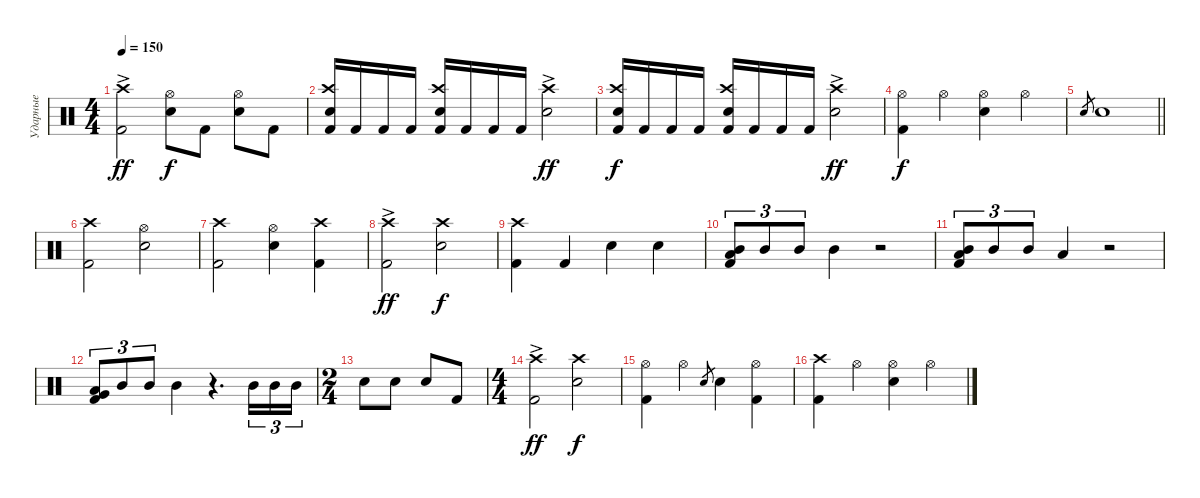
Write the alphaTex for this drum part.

\track ("Ударные" "Ударные") {instrument percussion}
\staff
\articulation defaults
\ts (4 4)
\tempo 150
\clef neutral
\ks c
("Kick (hit) 2" "Crash high (hit)"{ac}).2{dy ff} ("Snare (hit) 2" "Hi-Hat (open)").8{dy f} "Kick (hit) 2".8 ("Snare (hit) 2" "Hi-Hat (open)").8 "Kick (hit) 2".8 |
("Kick (hit) 2" "Snare (hit) 2" "Crash high (hit)").16 "Kick (hit) 2".16 "Kick (hit) 2".16 "Kick (hit) 2".16 ("Kick (hit) 2" "Snare (hit) 2" "Crash high (hit)").16 "Kick (hit) 2".16 "Kick (hit) 2".16 "Kick (hit) 2".16 ("Snare (hit) 2" "Crash high (hit)"{ac}).2{dy ff} |
("Kick (hit) 2" "Snare (hit) 2" "Crash high (hit)").16{dy f} "Kick (hit) 2".16 "Kick (hit) 2".16 "Kick (hit) 2".16 ("Kick (hit) 2" "Snare (hit) 2" "Crash high (hit)").16 "Kick (hit) 2".16 "Kick (hit) 2".16 "Kick (hit) 2".16 ("Snare (hit) 2" "Crash high (hit)"{ac}).2{dy ff} |
("Kick (hit) 2" "Hi-Hat (open)").4{dy f} "Hi-Hat (open)".4 ("Snare (hit) 2" "Hi-Hat (open)").4 "Hi-Hat (open)".4 |
\barLineRight lightlight "Snare (hit) 2".8{gr} "Snare (hit) 2".1
|
("Kick (hit) 2" "Crash high (hit)").2 ("Snare (hit) 2" "Hi-Hat (open)").2 |
("Kick (hit) 2" "Crash high (hit)").2 ("Snare (hit) 2" "Hi-Hat (open)").4 ("Kick (hit) 2" "Crash high (hit)").4 |
("Kick (hit) 2" "Crash high (hit)"{ac}).2{dy ff} ("Snare (hit) 2" "Crash high (hit)").2{dy f} |
("Kick (hit) 2" "Crash high (hit)").4 "Kick (hit) 2".4 "Snare (hit) 2".4 "Snare (hit) 2".4 |
("Mid Tom (hit)" "Low Floor Tom (hit)" "Kick (hit) 2").8{tu (3 2)} "Mid Tom (hit)".8{tu (3 2)} "Mid Tom (hit)".8{tu (3 2)} "Mid Tom (hit)".4 r.2 |
("Low Floor Tom (hit)" "Mid Tom (hit)" "Kick (hit) 2").8{tu (3 2)} "Mid Tom (hit)".8{tu (3 2)} "Mid Tom (hit)".8{tu (3 2)} "Low Tom (hit)".4 r.2 |
("Very Low Tom (hit)" "Low Floor Tom (hit)" "Kick (hit) 2").8{tu (3 2)} "Mid Tom (hit)".8{tu (3 2)} "Mid Tom (hit)".8{tu (3 2)} "Mid Tom (hit)".4 r.4{d} "Mid Tom (hit)".16{tu (3 2)} "Mid Tom (hit)".16{tu (3 2)} "Mid Tom (hit)".16{tu (3 2)} |
\ts (2 4)
"Snare (hit) 2".8 "Snare (hit) 2".8 "Snare (hit) 2".8 "Kick (hit) 2".8 |
\ts (4 4)
("Kick (hit) 2" "Crash high (hit)"{ac}).2{dy ff} ("Snare (hit) 2" "Crash high (hit)").2{dy f} |
("Kick (hit) 2" "Hi-Hat (open)").4 "Hi-Hat (open)".4 "Snare (hit) 2".8{gr} "Snare (hit) 2".4 ("Kick (hit) 2" "Hi-Hat (open)").4 |
("Kick (hit) 2" "Crash high (hit)").4 "Hi-Hat (open)".4 ("Snare (hit) 2" "Hi-Hat (open)").4 "Hi-Hat (open)".4
